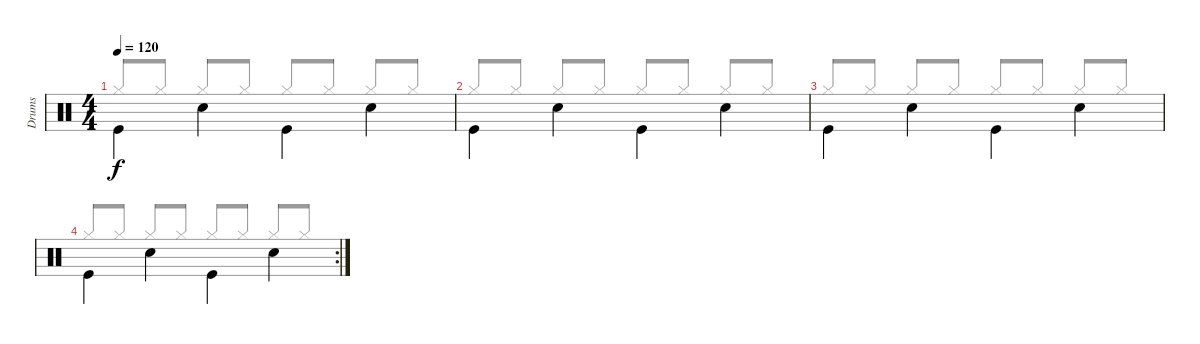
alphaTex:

\track ("Drums" "Drums") {instrument percussion}
\staff {score}
\articulation defaults
\voice
\ts (4 4)
\tempo 120
\clef neutral
\ks c "Kick (hit)".4{dy f beam Down} "Snare (hit) 2".4{beam Down} "Kick (hit)".4{beam Down} "Snare (hit) 2".4{beam Down}
|
"Kick (hit)".4{beam Down} "Snare (hit) 2".4{beam Down} "Kick (hit)".4{beam Down} "Snare (hit) 2".4{beam Down} |
"Kick (hit)".4{beam Down} "Snare (hit) 2".4{beam Down} "Kick (hit)".4{beam Down} "Snare (hit) 2".4{beam Down} |
\rc 2 "Kick (hit)".4{beam Down} "Snare (hit) 2".4{beam Down} "Kick (hit)".4{beam Down} "Snare (hit) 2".4{beam Down}
\voice
\clef neutral
\ottava regular
\simile none
\ks c "Hi-Hat (closed)".8{dy f beam Up} "Hi-Hat (closed)".8{beam Up} "Hi-Hat (closed)".8{beam Up} "Hi-Hat (closed)".8{beam Up} "Hi-Hat (closed)".8{beam Up} "Hi-Hat (closed)".8{beam Up} "Hi-Hat (closed)".8{beam Up} "Hi-Hat (closed)".8{beam Up}
|
"Hi-Hat (closed)".8{beam Up} "Hi-Hat (closed)".8{beam Up} "Hi-Hat (closed)".8{beam Up} "Hi-Hat (closed)".8{beam Up} "Hi-Hat (closed)".8{beam Up} "Hi-Hat (closed)".8{beam Up} "Hi-Hat (closed)".8{beam Up} "Hi-Hat (closed)".8{beam Up} |
"Hi-Hat (closed)".8{beam Up} "Hi-Hat (closed)".8{beam Up} "Hi-Hat (closed)".8{beam Up} "Hi-Hat (closed)".8{beam Up} "Hi-Hat (closed)".8{beam Up} "Hi-Hat (closed)".8{beam Up} "Hi-Hat (closed)".8{beam Up} "Hi-Hat (closed)".8{beam Up} |
"Hi-Hat (closed)".8{beam Up} "Hi-Hat (closed)".8{beam Up} "Hi-Hat (closed)".8{beam Up} "Hi-Hat (closed)".8{beam Up} "Hi-Hat (closed)".8{beam Up} "Hi-Hat (closed)".8{beam Up} "Hi-Hat (closed)".8{beam Up} "Hi-Hat (closed)".8{beam Up}
